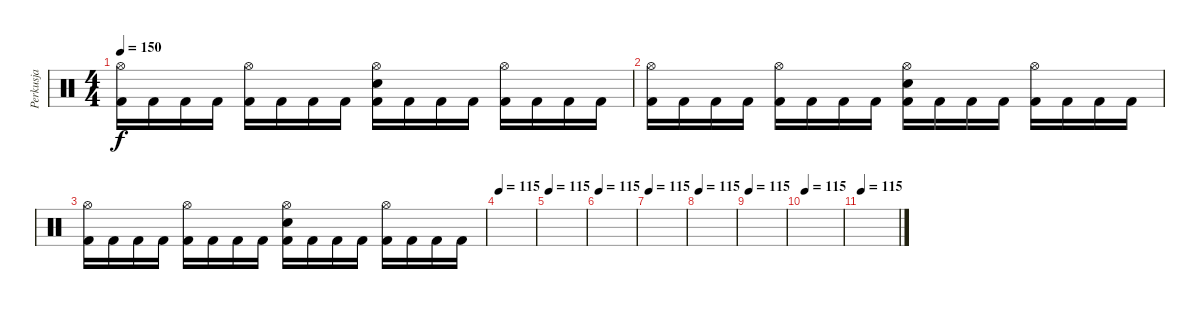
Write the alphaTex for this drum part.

\track ("Perkusja" "Perkusja") {instrument percussion}
\staff {score}
\articulation defaults
\ts (4 4)
\tempo 150
\clef neutral
\ks c
("Hi-Hat (open)" "Kick (hit) 2").16{dy f} "Kick (hit) 2".16 "Kick (hit) 2".16 "Kick (hit) 2".16 ("Hi-Hat (open)" "Kick (hit) 2").16 "Kick (hit) 2".16 "Kick (hit) 2".16 "Kick (hit) 2".16 ("Snare (hit) 2" "Hi-Hat (open)" "Kick (hit) 2").16 "Kick (hit) 2".16 "Kick (hit) 2".16 "Kick (hit) 2".16 ("Hi-Hat (open)" "Kick (hit) 2").16 "Kick (hit) 2".16 "Kick (hit) 2".16 "Kick (hit) 2".16 |
("Hi-Hat (open)" "Kick (hit) 2").16 "Kick (hit) 2".16 "Kick (hit) 2".16 "Kick (hit) 2".16 ("Hi-Hat (open)" "Kick (hit) 2").16 "Kick (hit) 2".16 "Kick (hit) 2".16 "Kick (hit) 2".16 ("Snare (hit) 2" "Hi-Hat (open)" "Kick (hit) 2").16 "Kick (hit) 2".16 "Kick (hit) 2".16 "Kick (hit) 2".16 ("Hi-Hat (open)" "Kick (hit) 2").16 "Kick (hit) 2".16 "Kick (hit) 2".16 "Kick (hit) 2".16 |
("Hi-Hat (open)" "Kick (hit) 2").16 "Kick (hit) 2".16 "Kick (hit) 2".16 "Kick (hit) 2".16 ("Hi-Hat (open)" "Kick (hit) 2").16 "Kick (hit) 2".16 "Kick (hit) 2".16 "Kick (hit) 2".16 ("Snare (hit) 2" "Hi-Hat (open)" "Kick (hit) 2").16 "Kick (hit) 2".16 "Kick (hit) 2".16 "Kick (hit) 2".16 ("Hi-Hat (open)" "Kick (hit) 2").16 "Kick (hit) 2".16 "Kick (hit) 2".16 "Kick (hit) 2".16 |
\tempo 115
|
\tempo 115
|
\tempo 115
|
\tempo 115
|
\tempo 115
|
\tempo 115
|
\tempo 115
|
\tempo 115
